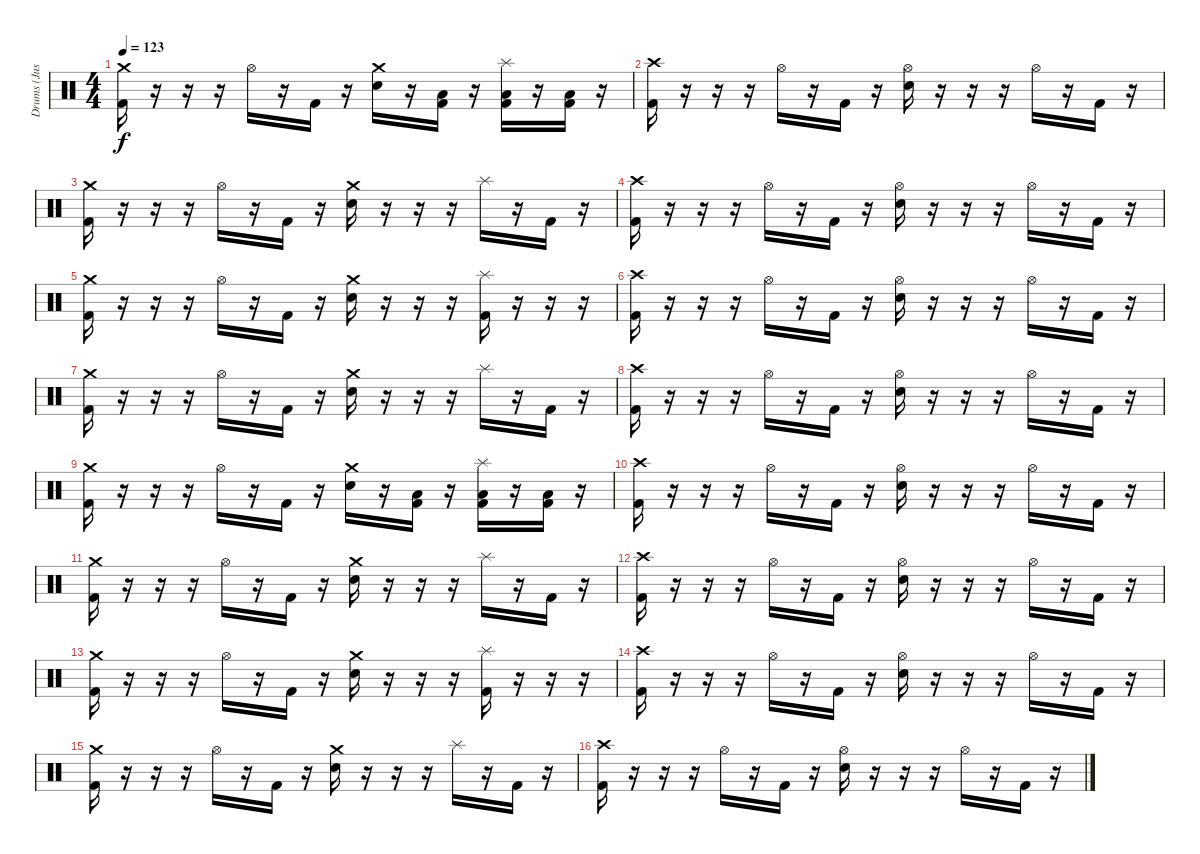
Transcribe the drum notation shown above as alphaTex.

\track ("Drums (Justin)" "Drums (Jus") {instrument percussion}
\staff {score}
\articulation defaults
\ts (4 4)
\tempo 123
\clef neutral
\ks c
("Crash medium (hit)" "Kick (hit) 2").16{dy f} r.16 r.16 r.16 "Hi-Hat (open)".16 r.16 "Kick (hit) 2".16 r.16 ("Electric Snare (hit)" "Crash medium (hit)").16 r.16 ("Low Floor Tom (hit)" "Kick (hit) 2").16 r.16 ("Splash (hit)" "Low Floor Tom (hit)" "Kick (hit) 2").16 r.16 ("Low Floor Tom (hit)" "Kick (hit) 2").16 r.16 |
("Crash high (hit)" "Kick (hit) 2").16 r.16 r.16 r.16 "Hi-Hat (open)".16 r.16 "Kick (hit) 2".16 r.16 ("Electric Snare (hit)" "Hi-Hat (open)").16 r.16 r.16 r.16 "Hi-Hat (open)".16 r.16 "Kick (hit) 2".16 r.16 |
("Crash medium (hit)" "Kick (hit) 2").16 r.16 r.16 r.16 "Hi-Hat (open)".16 r.16 "Kick (hit) 2".16 r.16 ("Electric Snare (hit)" "Crash medium (hit)").16 r.16 r.16 r.16 "Splash (hit)".16 r.16 "Kick (hit) 2".16 r.16 |
("Crash high (hit)" "Kick (hit) 2").16 r.16 r.16 r.16 "Hi-Hat (open)".16 r.16 "Kick (hit) 2".16 r.16 ("Electric Snare (hit)" "Hi-Hat (open)").16 r.16 r.16 r.16 "Hi-Hat (open)".16 r.16 "Kick (hit) 2".16 r.16 |
("Crash medium (hit)" "Kick (hit) 2").16 r.16 r.16 r.16 "Hi-Hat (open)".16 r.16 "Kick (hit) 2".16 r.16 ("Electric Snare (hit)" "Crash medium (hit)").16 r.16 r.16 r.16 ("Splash (hit)" "Kick (hit) 2").16 r.16 r.16 r.16 |
("Crash high (hit)" "Kick (hit) 2").16 r.16 r.16 r.16 "Hi-Hat (open)".16 r.16 "Kick (hit) 2".16 r.16 ("Electric Snare (hit)" "Hi-Hat (open)").16 r.16 r.16 r.16 "Hi-Hat (open)".16 r.16 "Kick (hit) 2".16 r.16 |
("Crash medium (hit)" "Kick (hit) 2").16 r.16 r.16 r.16 "Hi-Hat (open)".16 r.16 "Kick (hit) 2".16 r.16 ("Electric Snare (hit)" "Crash medium (hit)").16 r.16 r.16 r.16 "Splash (hit)".16 r.16 "Kick (hit) 2".16 r.16 |
("Crash high (hit)" "Kick (hit) 2").16 r.16 r.16 r.16 "Hi-Hat (open)".16 r.16 "Kick (hit) 2".16 r.16 ("Electric Snare (hit)" "Hi-Hat (open)").16 r.16 r.16 r.16 "Hi-Hat (open)".16 r.16 "Kick (hit) 2".16 r.16 |
("Crash medium (hit)" "Kick (hit) 2").16 r.16 r.16 r.16 "Hi-Hat (open)".16 r.16 "Kick (hit) 2".16 r.16 ("Electric Snare (hit)" "Crash medium (hit)").16 r.16 ("Low Floor Tom (hit)" "Kick (hit) 2").16 r.16 ("Splash (hit)" "Low Floor Tom (hit)" "Kick (hit) 2").16 r.16 ("Low Floor Tom (hit)" "Kick (hit) 2").16 r.16 |
("Crash high (hit)" "Kick (hit) 2").16 r.16 r.16 r.16 "Hi-Hat (open)".16 r.16 "Kick (hit) 2".16 r.16 ("Electric Snare (hit)" "Hi-Hat (open)").16 r.16 r.16 r.16 "Hi-Hat (open)".16 r.16 "Kick (hit) 2".16 r.16 |
("Crash medium (hit)" "Kick (hit) 2").16 r.16 r.16 r.16 "Hi-Hat (open)".16 r.16 "Kick (hit) 2".16 r.16 ("Electric Snare (hit)" "Crash medium (hit)").16 r.16 r.16 r.16 "Splash (hit)".16 r.16 "Kick (hit) 2".16 r.16 |
("Crash high (hit)" "Kick (hit) 2").16 r.16 r.16 r.16 "Hi-Hat (open)".16 r.16 "Kick (hit) 2".16 r.16 ("Electric Snare (hit)" "Hi-Hat (open)").16 r.16 r.16 r.16 "Hi-Hat (open)".16 r.16 "Kick (hit) 2".16 r.16 |
("Crash medium (hit)" "Kick (hit) 2").16 r.16 r.16 r.16 "Hi-Hat (open)".16 r.16 "Kick (hit) 2".16 r.16 ("Electric Snare (hit)" "Crash medium (hit)").16 r.16 r.16 r.16 ("Splash (hit)" "Kick (hit) 2").16 r.16 r.16 r.16 |
("Crash high (hit)" "Kick (hit) 2").16 r.16 r.16 r.16 "Hi-Hat (open)".16 r.16 "Kick (hit) 2".16 r.16 ("Electric Snare (hit)" "Hi-Hat (open)").16 r.16 r.16 r.16 "Hi-Hat (open)".16 r.16 "Kick (hit) 2".16 r.16 |
("Crash medium (hit)" "Kick (hit) 2").16 r.16 r.16 r.16 "Hi-Hat (open)".16 r.16 "Kick (hit) 2".16 r.16 ("Electric Snare (hit)" "Crash medium (hit)").16 r.16 r.16 r.16 "Splash (hit)".16 r.16 "Kick (hit) 2".16 r.16 |
("Crash high (hit)" "Kick (hit) 2").16 r.16 r.16 r.16 "Hi-Hat (open)".16 r.16 "Kick (hit) 2".16 r.16 ("Electric Snare (hit)" "Hi-Hat (open)").16 r.16 r.16 r.16 "Hi-Hat (open)".16 r.16 "Kick (hit) 2".16 r.16
